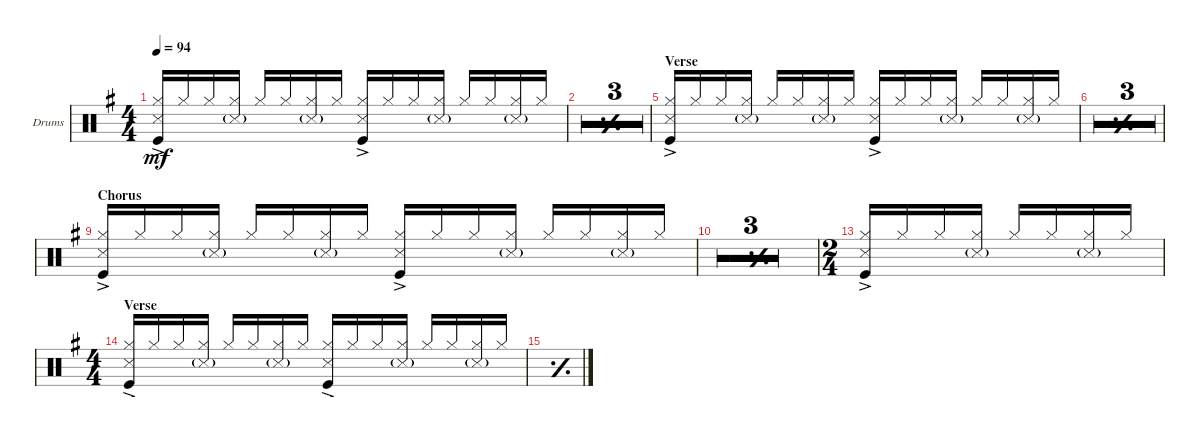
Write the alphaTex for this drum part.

\defaultSystemsLayout 4
\bracketExtendMode groupsimilarinstruments
\firstSystemTrackNameOrientation horizontal
\otherSystemsTrackNameOrientation horizontal
\track ("Drum Kit" "Drums") {multiBarRest instrument percussion}
\staff {score}
\articulation defaults
\ts (4 4)
\tempo 94
\clef neutral
\ks eminor
("Hi-Hat (closed)" "Snare (side stick) 3"{ac} "Kick (hit)").16{dy mf beam invert} "Hi-Hat (closed)".16 "Hi-Hat (closed)".16 ("Hi-Hat (closed)" "Snare (side stick) 3"{g}).16 "Hi-Hat (closed)".16{beam invert} "Hi-Hat (closed)".16 ("Hi-Hat (closed)" "Snare (side stick) 3"{g}).16 "Hi-Hat (closed)".16 ("Hi-Hat (closed)" "Kick (hit)" "Snare (side stick) 3"{ac}).16{beam invert} "Hi-Hat (closed)".16 "Hi-Hat (closed)".16 ("Hi-Hat (closed)" "Snare (side stick) 3"{g}).16 "Hi-Hat (closed)".16{beam invert} "Hi-Hat (closed)".16 ("Hi-Hat (closed)" "Snare (side stick) 3"{g}).16 "Hi-Hat (closed)".16 |
\simile simple
|
|
\barLineRight lightlight
|
\section ("" "Verse")
\simile none
("Hi-Hat (closed)" "Snare (side stick) 3"{ac} "Kick (hit)").16{beam invert} "Hi-Hat (closed)".16 "Hi-Hat (closed)".16 ("Hi-Hat (closed)" "Snare (side stick) 3"{g}).16 "Hi-Hat (closed)".16{beam invert} "Hi-Hat (closed)".16 ("Hi-Hat (closed)" "Snare (side stick) 3"{g}).16 "Hi-Hat (closed)".16 ("Hi-Hat (closed)" "Kick (hit)" "Snare (side stick) 3"{ac}).16{beam invert} "Hi-Hat (closed)".16 "Hi-Hat (closed)".16 ("Hi-Hat (closed)" "Snare (side stick) 3"{g}).16 "Hi-Hat (closed)".16{beam invert} "Hi-Hat (closed)".16 ("Hi-Hat (closed)" "Snare (side stick) 3"{g}).16 "Hi-Hat (closed)".16 |
\simile simple
|
|
|
\section ("" "Chorus")
\simile none
("Hi-Hat (closed)" "Snare (side stick) 3"{ac} "Kick (hit)").16{beam invert} "Hi-Hat (closed)".16 "Hi-Hat (closed)".16 ("Hi-Hat (closed)" "Snare (side stick) 3"{g}).16 "Hi-Hat (closed)".16{beam invert} "Hi-Hat (closed)".16 ("Hi-Hat (closed)" "Snare (side stick) 3"{g}).16 "Hi-Hat (closed)".16 ("Hi-Hat (closed)" "Kick (hit)" "Snare (side stick) 3"{ac}).16{beam invert} "Hi-Hat (closed)".16 "Hi-Hat (closed)".16 ("Hi-Hat (closed)" "Snare (side stick) 3"{g}).16 "Hi-Hat (closed)".16{beam invert} "Hi-Hat (closed)".16 ("Hi-Hat (closed)" "Snare (side stick) 3"{g}).16 "Hi-Hat (closed)".16 |
\simile simple
|
|
|
\ts (2 4)
\simile none
("Hi-Hat (closed)" "Snare (side stick) 3"{ac} "Kick (hit)").16{beam invert} "Hi-Hat (closed)".16 "Hi-Hat (closed)".16 ("Hi-Hat (closed)" "Snare (side stick) 3"{g}).16 "Hi-Hat (closed)".16{beam invert} "Hi-Hat (closed)".16 ("Hi-Hat (closed)" "Snare (side stick) 3"{g}).16 "Hi-Hat (closed)".16 |
\ts (4 4)
\section ("" "Verse")
("Hi-Hat (closed)" "Snare (side stick) 3"{ac} "Kick (hit)").16{beam invert} "Hi-Hat (closed)".16 "Hi-Hat (closed)".16 ("Hi-Hat (closed)" "Snare (side stick) 3"{g}).16 "Hi-Hat (closed)".16{beam invert} "Hi-Hat (closed)".16 ("Hi-Hat (closed)" "Snare (side stick) 3"{g}).16 "Hi-Hat (closed)".16 ("Hi-Hat (closed)" "Kick (hit)" "Snare (side stick) 3"{ac}).16{beam invert} "Hi-Hat (closed)".16 "Hi-Hat (closed)".16 ("Hi-Hat (closed)" "Snare (side stick) 3"{g}).16 "Hi-Hat (closed)".16{beam invert} "Hi-Hat (closed)".16 ("Hi-Hat (closed)" "Snare (side stick) 3"{g}).16 "Hi-Hat (closed)".16 |
\simile simple
